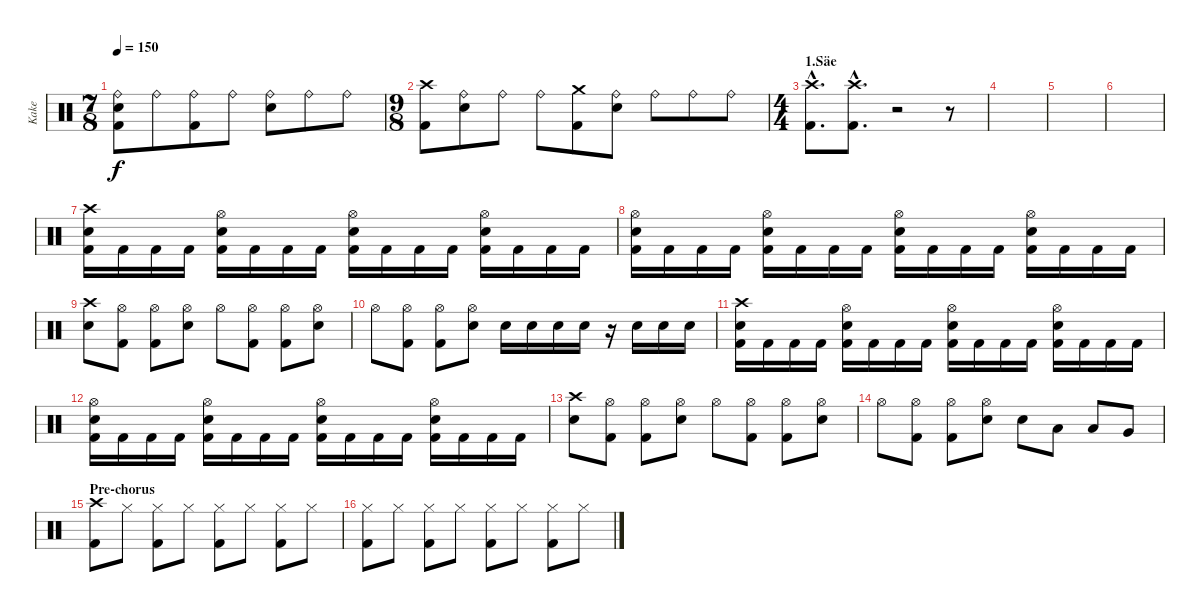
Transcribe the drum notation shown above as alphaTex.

\track ("Kake" "Kake") {instrument percussion}
\staff {score}
\articulation defaults
\ts (7 8)
\tempo 150
\clef neutral
\ks c
("Ride (bell)" "Electric Snare (hit)" "Kick (hit) 2").8{dy f} "Ride (bell)".8 ("Ride (bell)" "Kick (hit) 2").8 "Ride (bell)".8 ("Ride (bell)" "Electric Snare (hit)").8 "Ride (bell)".8 "Ride (bell)".8 |
\ts (9 8)
("Crash high (hit)" "Kick (hit) 2").8 ("Ride (bell)" "Electric Snare (hit)").8 "Ride (bell)".8 "Ride (bell)".8 ("Crash medium (hit)" "Kick (hit) 2").8 ("Ride (bell)" "Electric Snare (hit)").8 "Ride (bell)".8 "Ride (bell)".8 "Ride (bell)".8 |
\ts (4 4)
\section ("" "1.Säe")
("Crash high (hit)"{hac} "Kick (hit) 2"{hac}).8{d} ("Crash high (hit)"{hac} "Kick (hit) 2"{hac}).8{d} r.2 r.8 |
|
|
|
("Crash high (hit)" "Electric Snare (hit)" "Kick (hit) 2").16 "Kick (hit) 2".16 "Kick (hit) 2".16 "Kick (hit) 2".16 ("Hi-Hat (open)" "Electric Snare (hit)" "Kick (hit) 2").16 "Kick (hit) 2".16 "Kick (hit) 2".16 "Kick (hit) 2".16 ("Hi-Hat (open)" "Electric Snare (hit)" "Kick (hit) 2").16 "Kick (hit) 2".16 "Kick (hit) 2".16 "Kick (hit) 2".16 ("Hi-Hat (open)" "Electric Snare (hit)" "Kick (hit) 2").16 "Kick (hit) 2".16 "Kick (hit) 2".16 "Kick (hit) 2".16 |
("Hi-Hat (open)" "Electric Snare (hit)" "Kick (hit) 2").16 "Kick (hit) 2".16 "Kick (hit) 2".16 "Kick (hit) 2".16 ("Hi-Hat (open)" "Electric Snare (hit)" "Kick (hit) 2").16 "Kick (hit) 2".16 "Kick (hit) 2".16 "Kick (hit) 2".16 ("Hi-Hat (open)" "Electric Snare (hit)" "Kick (hit) 2").16 "Kick (hit) 2".16 "Kick (hit) 2".16 "Kick (hit) 2".16 ("Hi-Hat (open)" "Electric Snare (hit)" "Kick (hit) 2").16 "Kick (hit) 2".16 "Kick (hit) 2".16 "Kick (hit) 2".16 |
("Crash high (hit)" "Electric Snare (hit)").8 ("Hi-Hat (open)" "Kick (hit) 2").8 ("Hi-Hat (open)" "Kick (hit) 2").8 ("Hi-Hat (open)" "Electric Snare (hit)").8 "Hi-Hat (open)".8 ("Hi-Hat (open)" "Kick (hit) 2").8 ("Hi-Hat (open)" "Kick (hit) 2").8 ("Hi-Hat (open)" "Electric Snare (hit)").8 |
"Hi-Hat (open)".8 ("Hi-Hat (open)" "Kick (hit) 2").8 ("Hi-Hat (open)" "Kick (hit) 2").8 ("Hi-Hat (open)" "Electric Snare (hit)").8 "Electric Snare (hit)".16 "Electric Snare (hit)".16 "Electric Snare (hit)".16 "Electric Snare (hit)".16 r.16 "Electric Snare (hit)".16 "Electric Snare (hit)".16 "Electric Snare (hit)".16 |
("Crash high (hit)" "Electric Snare (hit)" "Kick (hit) 2").16 "Kick (hit) 2".16 "Kick (hit) 2".16 "Kick (hit) 2".16 ("Hi-Hat (open)" "Electric Snare (hit)" "Kick (hit) 2").16 "Kick (hit) 2".16 "Kick (hit) 2".16 "Kick (hit) 2".16 ("Hi-Hat (open)" "Electric Snare (hit)" "Kick (hit) 2").16 "Kick (hit) 2".16 "Kick (hit) 2".16 "Kick (hit) 2".16 ("Hi-Hat (open)" "Electric Snare (hit)" "Kick (hit) 2").16 "Kick (hit) 2".16 "Kick (hit) 2".16 "Kick (hit) 2".16 |
("Hi-Hat (open)" "Electric Snare (hit)" "Kick (hit) 2").16 "Kick (hit) 2".16 "Kick (hit) 2".16 "Kick (hit) 2".16 ("Hi-Hat (open)" "Electric Snare (hit)" "Kick (hit) 2").16 "Kick (hit) 2".16 "Kick (hit) 2".16 "Kick (hit) 2".16 ("Hi-Hat (open)" "Electric Snare (hit)" "Kick (hit) 2").16 "Kick (hit) 2".16 "Kick (hit) 2".16 "Kick (hit) 2".16 ("Hi-Hat (open)" "Electric Snare (hit)" "Kick (hit) 2").16 "Kick (hit) 2".16 "Kick (hit) 2".16 "Kick (hit) 2".16 |
("Crash high (hit)" "Electric Snare (hit)").8 ("Hi-Hat (open)" "Kick (hit) 2").8 ("Hi-Hat (open)" "Kick (hit) 2").8 ("Hi-Hat (open)" "Electric Snare (hit)").8 "Hi-Hat (open)".8 ("Hi-Hat (open)" "Kick (hit) 2").8 ("Hi-Hat (open)" "Kick (hit) 2").8 ("Hi-Hat (open)" "Electric Snare (hit)").8 |
"Hi-Hat (open)".8 ("Hi-Hat (open)" "Kick (hit) 2").8 ("Hi-Hat (open)" "Kick (hit) 2").8 ("Hi-Hat (open)" "Electric Snare (hit)").8 "Electric Snare (hit)".8 "Low Tom (hit)".8 "Low Tom (hit)".8 "Very Low Tom (hit)".8 |
\section ("" "Pre-chorus")
("Crash high (hit)" "Kick (hit) 2").8 "Hi-Hat (closed)".8 ("Hi-Hat (closed)" "Kick (hit) 2").8 "Hi-Hat (closed)".8 ("Hi-Hat (closed)" "Kick (hit) 2").8 "Hi-Hat (closed)".8 ("Hi-Hat (closed)" "Kick (hit) 2").8 "Hi-Hat (closed)".8 |
("Hi-Hat (closed)" "Kick (hit) 2").8 "Hi-Hat (closed)".8 ("Hi-Hat (closed)" "Kick (hit) 2").8 "Hi-Hat (closed)".8 ("Hi-Hat (closed)" "Kick (hit) 2").8 "Hi-Hat (closed)".8 ("Hi-Hat (closed)" "Kick (hit) 2").8 "Hi-Hat (closed)".8
